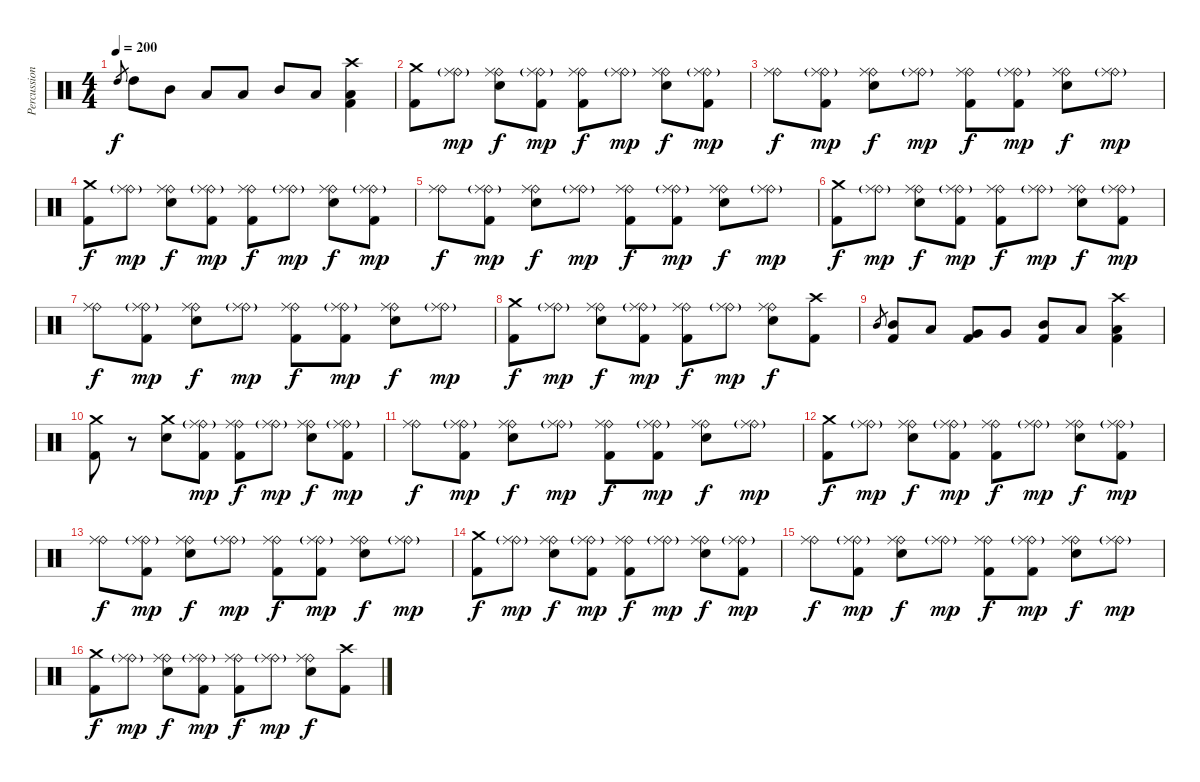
\track ("Percussion" "Percussion") {instrument percussion}
\staff {score}
\articulation defaults
\ts (4 4)
\tempo 200
\clef neutral
\ks c "High Tom (hit)".8{gr dy f} "High Tom (hit)".8 "Mid Tom (hit)".8 "Low Tom (hit)".8 "Low Tom (hit)".8 "Mid Tom (hit)".8 "Low Tom (hit)".8
("Crash high (hit)" "Low Floor Tom (hit)" "Kick (hit) 2").4 |
("Crash medium (hit)" "Kick (hit) 2").8 ("Ride (bell)"{g} "Ride (middle)").8{dy mp} ("Ride (bell)" "Ride (middle)" "Electric Snare (hit)").8{dy f} ("Ride (bell)"{g} "Ride (middle)" "Kick (hit) 2").8{dy mp} ("Ride (bell)" "Ride (middle)" "Kick (hit) 2").8{dy f} ("Ride (bell)"{g} "Ride (middle)").8{dy mp} ("Ride (bell)" "Ride (middle)" "Electric Snare (hit)").8{dy f} ("Ride (bell)"{g} "Ride (middle)" "Kick (hit) 2").8{dy mp} |
("Ride (bell)" "Ride (middle)").8{dy f} ("Ride (bell)"{g} "Ride (middle)" "Kick (hit) 2").8{dy mp} ("Ride (bell)" "Ride (middle)" "Electric Snare (hit)").8{dy f} ("Ride (bell)"{g} "Ride (middle)").8{dy mp} ("Ride (bell)" "Ride (middle)" "Kick (hit) 2").8{dy f} ("Ride (bell)"{g} "Ride (middle)" "Kick (hit) 2").8{dy mp} ("Ride (bell)" "Ride (middle)" "Electric Snare (hit)").8{dy f} ("Ride (bell)"{g} "Ride (middle)").8{dy mp} |
("Crash medium (hit)" "Kick (hit) 2").8{dy f} ("Ride (bell)"{g} "Ride (middle)").8{dy mp} ("Ride (bell)" "Ride (middle)" "Electric Snare (hit)").8{dy f} ("Ride (bell)"{g} "Ride (middle)" "Kick (hit) 2").8{dy mp} ("Ride (bell)" "Ride (middle)" "Kick (hit) 2").8{dy f} ("Ride (bell)"{g} "Ride (middle)").8{dy mp} ("Ride (bell)" "Ride (middle)" "Electric Snare (hit)").8{dy f} ("Ride (bell)"{g} "Ride (middle)" "Kick (hit) 2").8{dy mp} |
("Ride (bell)" "Ride (middle)").8{dy f} ("Ride (bell)"{g} "Ride (middle)" "Kick (hit) 2").8{dy mp} ("Ride (bell)" "Ride (middle)" "Electric Snare (hit)").8{dy f} ("Ride (bell)"{g} "Ride (middle)").8{dy mp} ("Ride (bell)" "Ride (middle)" "Kick (hit) 2").8{dy f} ("Ride (bell)"{g} "Ride (middle)" "Kick (hit) 2").8{dy mp} ("Ride (bell)" "Ride (middle)" "Electric Snare (hit)").8{dy f} ("Ride (bell)"{g} "Ride (middle)").8{dy mp} |
("Crash medium (hit)" "Kick (hit) 2").8{dy f} ("Ride (bell)"{g} "Ride (middle)").8{dy mp} ("Ride (bell)" "Ride (middle)" "Electric Snare (hit)").8{dy f} ("Ride (bell)"{g} "Ride (middle)" "Kick (hit) 2").8{dy mp} ("Ride (bell)" "Ride (middle)" "Kick (hit) 2").8{dy f} ("Ride (bell)"{g} "Ride (middle)").8{dy mp} ("Ride (bell)" "Ride (middle)" "Electric Snare (hit)").8{dy f} ("Ride (bell)"{g} "Ride (middle)" "Kick (hit) 2").8{dy mp} |
("Ride (bell)" "Ride (middle)").8{dy f} ("Ride (bell)"{g} "Ride (middle)" "Kick (hit) 2").8{dy mp} ("Ride (bell)" "Ride (middle)" "Electric Snare (hit)").8{dy f} ("Ride (bell)"{g} "Ride (middle)").8{dy mp} ("Ride (bell)" "Ride (middle)" "Kick (hit) 2").8{dy f} ("Ride (bell)"{g} "Ride (middle)" "Kick (hit) 2").8{dy mp} ("Ride (bell)" "Ride (middle)" "Electric Snare (hit)").8{dy f} ("Ride (bell)"{g} "Ride (middle)").8{dy mp} |
("Crash medium (hit)" "Kick (hit) 2").8{dy f} ("Ride (bell)"{g} "Ride (middle)").8{dy mp} ("Ride (bell)" "Ride (middle)" "Electric Snare (hit)").8{dy f} ("Ride (bell)"{g} "Ride (middle)" "Kick (hit) 2").8{dy mp} ("Ride (bell)" "Ride (middle)" "Kick (hit) 2").8{dy f} ("Ride (bell)"{g} "Ride (middle)").8{dy mp} ("Ride (bell)" "Ride (middle)" "Electric Snare (hit)").8{dy f} ("Crash high (hit)" "Kick (hit) 2").8 |
"Mid Tom (hit)".8{gr} ("Mid Tom (hit)" "Kick (hit) 2").8 "Low Tom (hit)".8 ("Very Low Tom (hit)" "Kick (hit) 2").8 "Very Low Tom (hit)".8 ("Mid Tom (hit)" "Kick (hit) 2").8 "Low Tom (hit)".8 ("Crash high (hit)" "Low Floor Tom (hit)" "Kick (hit) 2").4 |
("Crash medium (hit)" "Kick (hit) 2").8 r.8 ("Crash medium (hit)" "Electric Snare (hit)").8 ("Ride (bell)"{g} "Ride (middle)" "Kick (hit) 2").8{dy mp} ("Ride (bell)" "Ride (middle)" "Kick (hit) 2").8{dy f} ("Ride (bell)"{g} "Ride (middle)").8{dy mp} ("Ride (bell)" "Ride (middle)" "Electric Snare (hit)").8{dy f} ("Ride (bell)"{g} "Ride (middle)" "Kick (hit) 2").8{dy mp} |
("Ride (bell)" "Ride (middle)").8{dy f} ("Ride (bell)"{g} "Ride (middle)" "Kick (hit) 2").8{dy mp} ("Ride (bell)" "Ride (middle)" "Electric Snare (hit)").8{dy f} ("Ride (bell)"{g} "Ride (middle)").8{dy mp} ("Ride (bell)" "Ride (middle)" "Kick (hit) 2").8{dy f} ("Ride (bell)"{g} "Ride (middle)" "Kick (hit) 2").8{dy mp} ("Ride (bell)" "Ride (middle)" "Electric Snare (hit)").8{dy f} ("Ride (bell)"{g} "Ride (middle)").8{dy mp} |
("Crash medium (hit)" "Kick (hit) 2").8{dy f} ("Ride (bell)"{g} "Ride (middle)").8{dy mp} ("Ride (bell)" "Ride (middle)" "Electric Snare (hit)").8{dy f} ("Ride (bell)"{g} "Ride (middle)" "Kick (hit) 2").8{dy mp} ("Ride (bell)" "Ride (middle)" "Kick (hit) 2").8{dy f} ("Ride (bell)"{g} "Ride (middle)").8{dy mp} ("Ride (bell)" "Ride (middle)" "Electric Snare (hit)").8{dy f} ("Ride (bell)"{g} "Ride (middle)" "Kick (hit) 2").8{dy mp} |
("Ride (bell)" "Ride (middle)").8{dy f} ("Ride (bell)"{g} "Ride (middle)" "Kick (hit) 2").8{dy mp} ("Ride (bell)" "Ride (middle)" "Electric Snare (hit)").8{dy f} ("Ride (bell)"{g} "Ride (middle)").8{dy mp} ("Ride (bell)" "Ride (middle)" "Kick (hit) 2").8{dy f} ("Ride (bell)"{g} "Ride (middle)" "Kick (hit) 2").8{dy mp} ("Ride (bell)" "Ride (middle)" "Electric Snare (hit)").8{dy f} ("Ride (bell)"{g} "Ride (middle)").8{dy mp} |
("Crash medium (hit)" "Kick (hit) 2").8{dy f} ("Ride (bell)"{g} "Ride (middle)").8{dy mp} ("Ride (bell)" "Ride (middle)" "Electric Snare (hit)").8{dy f} ("Ride (bell)"{g} "Ride (middle)" "Kick (hit) 2").8{dy mp} ("Ride (bell)" "Ride (middle)" "Kick (hit) 2").8{dy f} ("Ride (bell)"{g} "Ride (middle)").8{dy mp} ("Ride (bell)" "Ride (middle)" "Electric Snare (hit)").8{dy f} ("Ride (bell)"{g} "Ride (middle)" "Kick (hit) 2").8{dy mp} |
("Ride (bell)" "Ride (middle)").8{dy f} ("Ride (bell)"{g} "Ride (middle)" "Kick (hit) 2").8{dy mp} ("Ride (bell)" "Ride (middle)" "Electric Snare (hit)").8{dy f} ("Ride (bell)"{g} "Ride (middle)").8{dy mp} ("Ride (bell)" "Ride (middle)" "Kick (hit) 2").8{dy f} ("Ride (bell)"{g} "Ride (middle)" "Kick (hit) 2").8{dy mp} ("Ride (bell)" "Ride (middle)" "Electric Snare (hit)").8{dy f} ("Ride (bell)"{g} "Ride (middle)").8{dy mp} |
("Crash medium (hit)" "Kick (hit) 2").8{dy f} ("Ride (bell)"{g} "Ride (middle)").8{dy mp} ("Ride (bell)" "Ride (middle)" "Electric Snare (hit)").8{dy f} ("Ride (bell)"{g} "Ride (middle)" "Kick (hit) 2").8{dy mp} ("Ride (bell)" "Ride (middle)" "Kick (hit) 2").8{dy f} ("Ride (bell)"{g} "Ride (middle)").8{dy mp} ("Ride (bell)" "Ride (middle)" "Electric Snare (hit)").8{dy f} ("Crash high (hit)" "Kick (hit) 2").8
